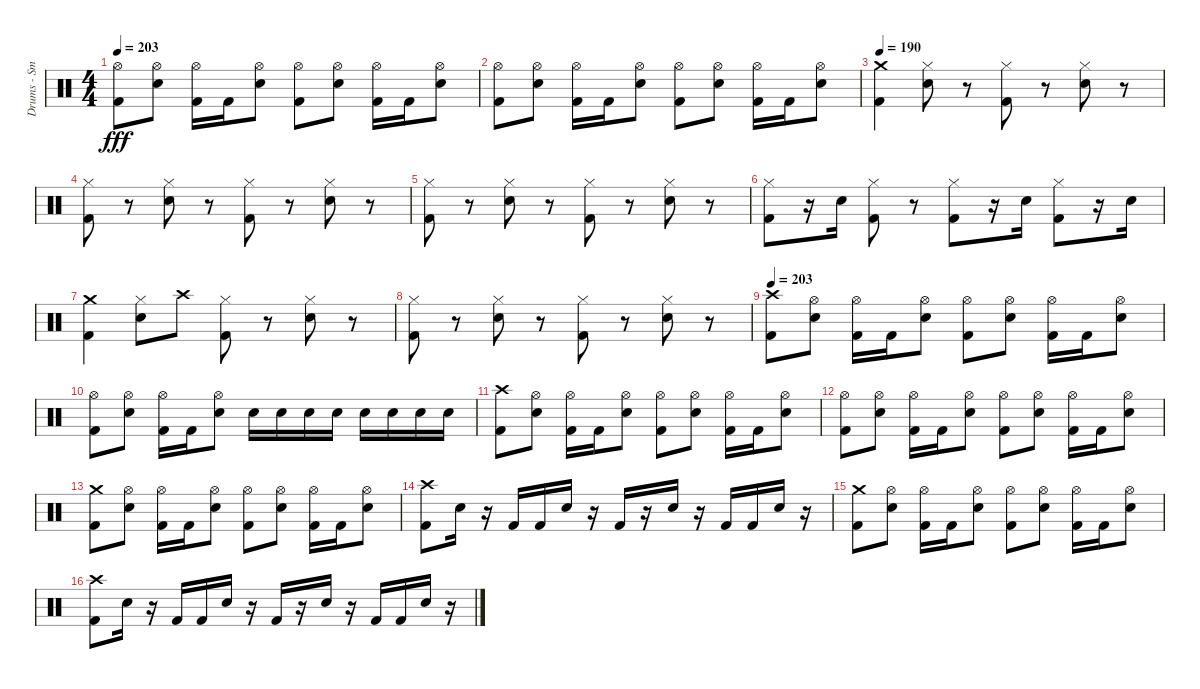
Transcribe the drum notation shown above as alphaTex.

\track ("Drums - Smelly" "Drums - Sm") {instrument percussion}
\staff {score}
\articulation defaults
\ts (4 4)
\tempo 203
\clef neutral
\ks c
("Kick (hit) 2" "Hi-Hat (open)").8{dy fff} ("Electric Snare (hit)" "Hi-Hat (open)").8 ("Kick (hit) 2" "Hi-Hat (open)").16 "Kick (hit) 2".16 ("Electric Snare (hit)" "Hi-Hat (open)").8 ("Kick (hit) 2" "Hi-Hat (open)").8 ("Electric Snare (hit)" "Hi-Hat (open)").8 ("Kick (hit) 2" "Hi-Hat (open)").16 "Kick (hit) 2".16 ("Electric Snare (hit)" "Hi-Hat (open)").8 |
("Kick (hit) 2" "Hi-Hat (open)").8 ("Electric Snare (hit)" "Hi-Hat (open)").8 ("Kick (hit) 2" "Hi-Hat (open)").16 "Kick (hit) 2".16 ("Electric Snare (hit)" "Hi-Hat (open)").8 ("Kick (hit) 2" "Hi-Hat (open)").8 ("Electric Snare (hit)" "Hi-Hat (open)").8 ("Kick (hit) 2" "Hi-Hat (open)").16 "Kick (hit) 2".16 ("Electric Snare (hit)" "Hi-Hat (open)").8 |
\tempo 190
("Kick (hit) 2" "Crash medium (hit)").4 ("Electric Snare (hit)" "Hi-Hat (closed)").8 r.8 ("Kick (hit) 2" "Hi-Hat (closed)").8 r.8 ("Electric Snare (hit)" "Hi-Hat (closed)").8 r.8 |
("Kick (hit) 2" "Hi-Hat (closed)").8 r.8 ("Electric Snare (hit)" "Hi-Hat (closed)").8 r.8 ("Kick (hit) 2" "Hi-Hat (closed)").8 r.8 ("Electric Snare (hit)" "Hi-Hat (closed)").8 r.8 |
("Kick (hit) 2" "Hi-Hat (closed)").8 r.8 ("Electric Snare (hit)" "Hi-Hat (closed)").8 r.8 ("Kick (hit) 2" "Hi-Hat (closed)").8 r.8 ("Electric Snare (hit)" "Hi-Hat (closed)").8 r.8 |
("Kick (hit) 2" "Hi-Hat (closed)").8 r.16 "Electric Snare (hit)".16 ("Kick (hit) 2" "Hi-Hat (closed)").8 r.8 ("Kick (hit) 2" "Hi-Hat (closed)").8 r.16 "Electric Snare (hit)".16 ("Kick (hit) 2" "Hi-Hat (closed)").8 r.16 "Electric Snare (hit)".16 |
("Kick (hit) 2" "Crash medium (hit)").4 ("Electric Snare (hit)" "Hi-Hat (closed)").8 "Crash high (hit)".8 ("Kick (hit) 2" "Hi-Hat (closed)").8 r.8 ("Electric Snare (hit)" "Hi-Hat (closed)").8 r.8 |
("Kick (hit) 2" "Hi-Hat (closed)").8 r.8 ("Electric Snare (hit)" "Hi-Hat (closed)").8 r.8 ("Kick (hit) 2" "Hi-Hat (closed)").8 r.8 ("Electric Snare (hit)" "Hi-Hat (closed)").8 r.8 |
\tempo 203
("Crash high (hit)" "Kick (hit) 2").8 ("Electric Snare (hit)" "Hi-Hat (open)").8 ("Kick (hit) 2" "Hi-Hat (open)").16 "Kick (hit) 2".16 ("Electric Snare (hit)" "Hi-Hat (open)").8 ("Kick (hit) 2" "Hi-Hat (open)").8 ("Electric Snare (hit)" "Hi-Hat (open)").8 ("Kick (hit) 2" "Hi-Hat (open)").16 "Kick (hit) 2".16 ("Electric Snare (hit)" "Hi-Hat (open)").8 |
("Kick (hit) 2" "Hi-Hat (open)").8 ("Electric Snare (hit)" "Hi-Hat (open)").8 ("Kick (hit) 2" "Hi-Hat (open)").16 "Kick (hit) 2".16 ("Electric Snare (hit)" "Hi-Hat (open)").8 "Electric Snare (hit)".16 "Electric Snare (hit)".16 "Electric Snare (hit)".16 "Electric Snare (hit)".16 "Electric Snare (hit)".16 "Electric Snare (hit)".16 "Electric Snare (hit)".16 "Electric Snare (hit)".16 |
("Crash high (hit)" "Kick (hit) 2").8 ("Electric Snare (hit)" "Hi-Hat (open)").8 ("Kick (hit) 2" "Hi-Hat (open)").16 "Kick (hit) 2".16 ("Electric Snare (hit)" "Hi-Hat (open)").8 ("Kick (hit) 2" "Hi-Hat (open)").8 ("Electric Snare (hit)" "Hi-Hat (open)").8 ("Kick (hit) 2" "Hi-Hat (open)").16 "Kick (hit) 2".16 ("Electric Snare (hit)" "Hi-Hat (open)").8 |
("Kick (hit) 2" "Hi-Hat (open)").8 ("Electric Snare (hit)" "Hi-Hat (open)").8 ("Kick (hit) 2" "Hi-Hat (open)").16 "Kick (hit) 2".16 ("Electric Snare (hit)" "Hi-Hat (open)").8 ("Kick (hit) 2" "Hi-Hat (open)").8 ("Electric Snare (hit)" "Hi-Hat (open)").8 ("Kick (hit) 2" "Hi-Hat (open)").16 "Kick (hit) 2".16 ("Electric Snare (hit)" "Hi-Hat (open)").8 |
("Kick (hit) 2" "Crash medium (hit)").8 ("Electric Snare (hit)" "Hi-Hat (open)").8 ("Kick (hit) 2" "Hi-Hat (open)").16 "Kick (hit) 2".16 ("Electric Snare (hit)" "Hi-Hat (open)").8 ("Kick (hit) 2" "Hi-Hat (open)").8 ("Electric Snare (hit)" "Hi-Hat (open)").8 ("Kick (hit) 2" "Hi-Hat (open)").16 "Kick (hit) 2".16 ("Electric Snare (hit)" "Hi-Hat (open)").8 |
("Crash high (hit)" "Kick (hit) 2").8 "Electric Snare (hit)".16 r.16 "Kick (hit) 2".16 "Kick (hit) 2".16 "Electric Snare (hit)".16 r.16 "Kick (hit) 2".16 r.16 "Electric Snare (hit)".16 r.16 "Kick (hit) 2".16 "Kick (hit) 2".16 "Electric Snare (hit)".16 r.16 |
("Kick (hit) 2" "Crash medium (hit)").8 ("Electric Snare (hit)" "Hi-Hat (open)").8 ("Kick (hit) 2" "Hi-Hat (open)").16 "Kick (hit) 2".16 ("Electric Snare (hit)" "Hi-Hat (open)").8 ("Kick (hit) 2" "Hi-Hat (open)").8 ("Electric Snare (hit)" "Hi-Hat (open)").8 ("Kick (hit) 2" "Hi-Hat (open)").16 "Kick (hit) 2".16 ("Electric Snare (hit)" "Hi-Hat (open)").8 |
("Crash high (hit)" "Kick (hit) 2").8 "Electric Snare (hit)".16 r.16 "Kick (hit) 2".16 "Kick (hit) 2".16 "Electric Snare (hit)".16 r.16 "Kick (hit) 2".16 r.16 "Electric Snare (hit)".16 r.16 "Kick (hit) 2".16 "Kick (hit) 2".16 "Electric Snare (hit)".16 r.16
